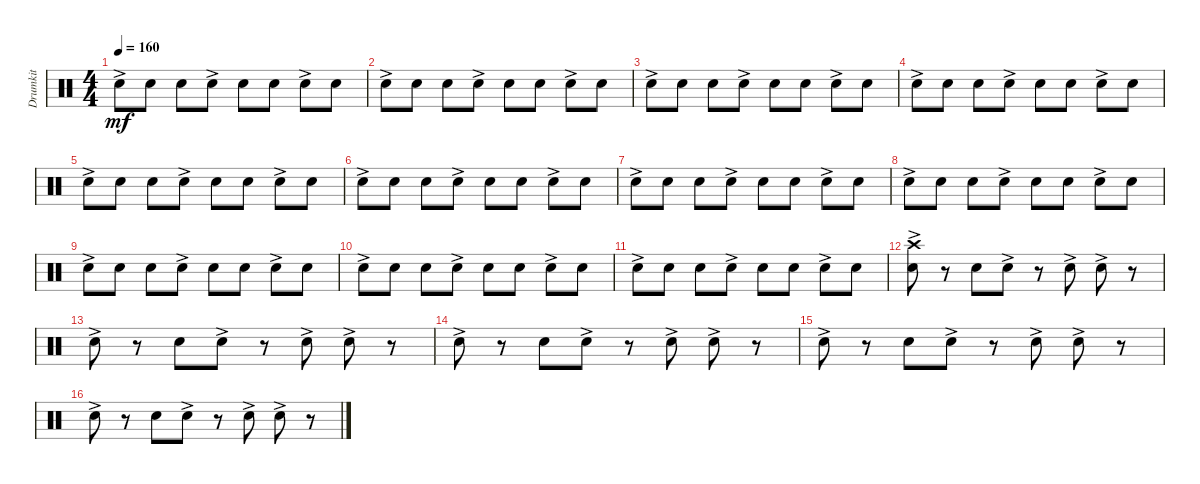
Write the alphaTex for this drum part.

\track ("Drumkit" "Drumkit") {instrument percussion}
\staff {score}
\articulation defaults
\ts (4 4)
\tempo 160
\clef neutral
\ks c "Snare (hit) 2"{ac}.8{dy mf} "Snare (hit) 2".8 "Snare (hit) 2".8 "Snare (hit) 2"{ac}.8 "Snare (hit) 2".8 "Snare (hit) 2".8 "Snare (hit) 2"{ac}.8 "Snare (hit) 2".8
|
"Snare (hit) 2"{ac}.8 "Snare (hit) 2".8 "Snare (hit) 2".8 "Snare (hit) 2"{ac}.8 "Snare (hit) 2".8 "Snare (hit) 2".8 "Snare (hit) 2"{ac}.8 "Snare (hit) 2".8 |
"Snare (hit) 2"{ac}.8 "Snare (hit) 2".8 "Snare (hit) 2".8 "Snare (hit) 2"{ac}.8 "Snare (hit) 2".8 "Snare (hit) 2".8 "Snare (hit) 2"{ac}.8 "Snare (hit) 2".8 |
"Snare (hit) 2"{ac}.8 "Snare (hit) 2".8 "Snare (hit) 2".8 "Snare (hit) 2"{ac}.8 "Snare (hit) 2".8 "Snare (hit) 2".8 "Snare (hit) 2"{ac}.8 "Snare (hit) 2".8 |
"Snare (hit) 2"{ac}.8 "Snare (hit) 2".8 "Snare (hit) 2".8 "Snare (hit) 2"{ac}.8 "Snare (hit) 2".8 "Snare (hit) 2".8 "Snare (hit) 2"{ac}.8 "Snare (hit) 2".8 |
"Snare (hit) 2"{ac}.8 "Snare (hit) 2".8 "Snare (hit) 2".8 "Snare (hit) 2"{ac}.8 "Snare (hit) 2".8 "Snare (hit) 2".8 "Snare (hit) 2"{ac}.8 "Snare (hit) 2".8 |
"Snare (hit) 2"{ac}.8 "Snare (hit) 2".8 "Snare (hit) 2".8 "Snare (hit) 2"{ac}.8 "Snare (hit) 2".8 "Snare (hit) 2".8 "Snare (hit) 2"{ac}.8 "Snare (hit) 2".8 |
"Snare (hit) 2"{ac}.8 "Snare (hit) 2".8 "Snare (hit) 2".8 "Snare (hit) 2"{ac}.8 "Snare (hit) 2".8 "Snare (hit) 2".8 "Snare (hit) 2"{ac}.8 "Snare (hit) 2".8 |
"Snare (hit) 2"{ac}.8 "Snare (hit) 2".8 "Snare (hit) 2".8 "Snare (hit) 2"{ac}.8 "Snare (hit) 2".8 "Snare (hit) 2".8 "Snare (hit) 2"{ac}.8 "Snare (hit) 2".8 |
"Snare (hit) 2"{ac}.8 "Snare (hit) 2".8 "Snare (hit) 2".8 "Snare (hit) 2"{ac}.8 "Snare (hit) 2".8 "Snare (hit) 2".8 "Snare (hit) 2"{ac}.8 "Snare (hit) 2".8 |
"Snare (hit) 2"{ac}.8 "Snare (hit) 2".8 "Snare (hit) 2".8 "Snare (hit) 2"{ac}.8 "Snare (hit) 2".8 "Snare (hit) 2".8 "Snare (hit) 2"{ac}.8 "Snare (hit) 2".8 |
("Snare (hit) 2"{ac} "Crash high (hit)").8 r.8 "Snare (hit) 2".8 "Snare (hit) 2"{ac}.8 r.8 "Snare (hit) 2"{ac}.8 "Snare (hit) 2"{ac}.8 r.8 |
"Snare (hit) 2"{ac}.8 r.8 "Snare (hit) 2".8 "Snare (hit) 2"{ac}.8 r.8 "Snare (hit) 2"{ac}.8 "Snare (hit) 2"{ac}.8 r.8 |
"Snare (hit) 2"{ac}.8 r.8 "Snare (hit) 2".8 "Snare (hit) 2"{ac}.8 r.8 "Snare (hit) 2"{ac}.8 "Snare (hit) 2"{ac}.8 r.8 |
"Snare (hit) 2"{ac}.8 r.8 "Snare (hit) 2".8 "Snare (hit) 2"{ac}.8 r.8 "Snare (hit) 2"{ac}.8 "Snare (hit) 2"{ac}.8 r.8 |
"Snare (hit) 2"{ac}.8 r.8 "Snare (hit) 2".8 "Snare (hit) 2"{ac}.8 r.8 "Snare (hit) 2"{ac}.8 "Snare (hit) 2"{ac}.8 r.8
